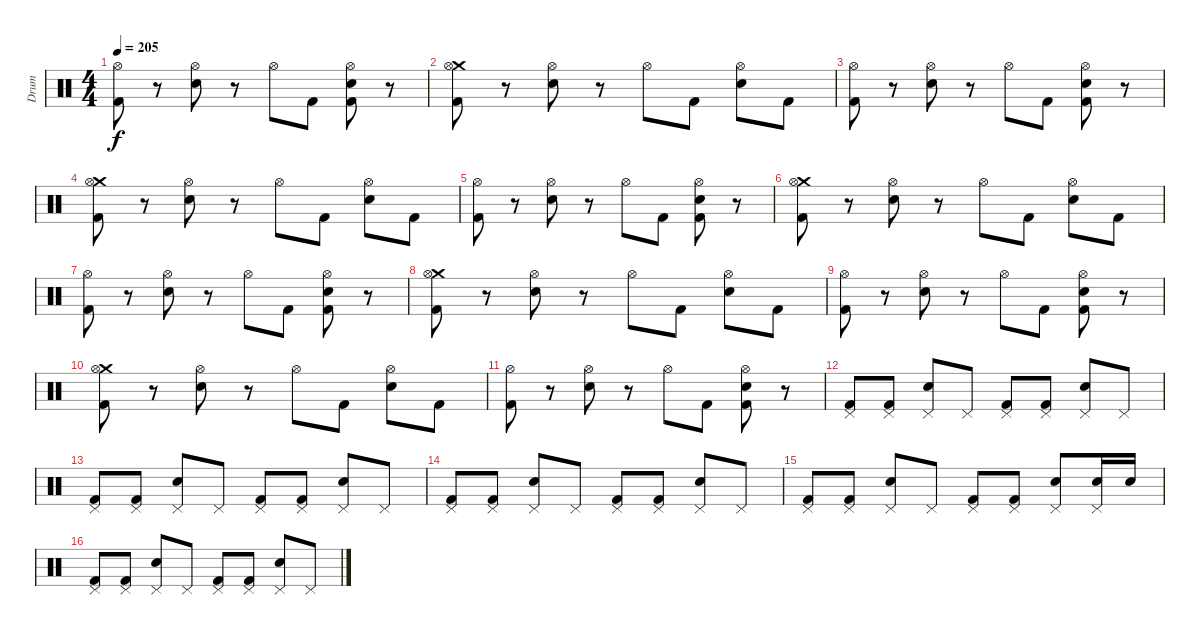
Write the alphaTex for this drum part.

\track ("Drum" "Drum") {instrument percussion}
\staff {score}
\articulation defaults
\ts (4 4)
\tempo 205
\clef neutral
\ks c
("Hi-Hat (open)" "Kick (hit) 2").8{dy f} r.8 ("Hi-Hat (open)" "Snare (hit) 2").8 r.8 "Hi-Hat (open)".8 "Kick (hit) 2".8 ("Hi-Hat (open)" "Snare (hit) 2" "Kick (hit) 2").8 r.8 |
("Crash medium (hit)" "Hi-Hat (open)" "Kick (hit) 2").8 r.8 ("Hi-Hat (open)" "Snare (hit) 2").8 r.8 "Hi-Hat (open)".8 "Kick (hit) 2".8 ("Hi-Hat (open)" "Snare (hit) 2").8 "Kick (hit) 2".8 |
("Hi-Hat (open)" "Kick (hit) 2").8 r.8 ("Hi-Hat (open)" "Snare (hit) 2").8 r.8 "Hi-Hat (open)".8 "Kick (hit) 2".8 ("Hi-Hat (open)" "Snare (hit) 2" "Kick (hit) 2").8 r.8 |
("Crash medium (hit)" "Hi-Hat (open)" "Kick (hit) 2").8 r.8 ("Hi-Hat (open)" "Snare (hit) 2").8 r.8 "Hi-Hat (open)".8 "Kick (hit) 2".8 ("Hi-Hat (open)" "Snare (hit) 2").8 "Kick (hit) 2".8 |
("Hi-Hat (open)" "Kick (hit) 2").8 r.8 ("Hi-Hat (open)" "Snare (hit) 2").8 r.8 "Hi-Hat (open)".8 "Kick (hit) 2".8 ("Hi-Hat (open)" "Snare (hit) 2" "Kick (hit) 2").8 r.8 |
("Crash medium (hit)" "Hi-Hat (open)" "Kick (hit) 2").8 r.8 ("Hi-Hat (open)" "Snare (hit) 2").8 r.8 "Hi-Hat (open)".8 "Kick (hit) 2".8 ("Hi-Hat (open)" "Snare (hit) 2").8 "Kick (hit) 2".8 |
("Hi-Hat (open)" "Kick (hit) 2").8 r.8 ("Hi-Hat (open)" "Snare (hit) 2").8 r.8 "Hi-Hat (open)".8 "Kick (hit) 2".8 ("Hi-Hat (open)" "Snare (hit) 2" "Kick (hit) 2").8 r.8 |
("Crash medium (hit)" "Hi-Hat (open)" "Kick (hit) 2").8 r.8 ("Hi-Hat (open)" "Snare (hit) 2").8 r.8 "Hi-Hat (open)".8 "Kick (hit) 2".8 ("Hi-Hat (open)" "Snare (hit) 2").8 "Kick (hit) 2".8 |
("Hi-Hat (open)" "Kick (hit) 2").8 r.8 ("Hi-Hat (open)" "Snare (hit) 2").8 r.8 "Hi-Hat (open)".8 "Kick (hit) 2".8 ("Hi-Hat (open)" "Snare (hit) 2" "Kick (hit) 2").8 r.8 |
("Crash medium (hit)" "Hi-Hat (open)" "Kick (hit) 2").8 r.8 ("Hi-Hat (open)" "Snare (hit) 2").8 r.8 "Hi-Hat (open)".8 "Kick (hit) 2".8 ("Hi-Hat (open)" "Snare (hit) 2").8 "Kick (hit) 2".8 |
("Hi-Hat (open)" "Kick (hit) 2").8 r.8 ("Hi-Hat (open)" "Snare (hit) 2").8 r.8 "Hi-Hat (open)".8 "Kick (hit) 2".8 ("Hi-Hat (open)" "Snare (hit) 2" "Kick (hit) 2").8 r.8 |
("Pedal Hi-Hat (hit)" "Kick (hit) 2").8 ("Pedal Hi-Hat (hit)" "Kick (hit) 2").8 ("Pedal Hi-Hat (hit)" "Snare (hit) 2").8 "Pedal Hi-Hat (hit)".8 ("Pedal Hi-Hat (hit)" "Kick (hit) 2").8 ("Pedal Hi-Hat (hit)" "Kick (hit) 2").8 ("Pedal Hi-Hat (hit)" "Snare (hit) 2").8 "Pedal Hi-Hat (hit)".8 |
("Pedal Hi-Hat (hit)" "Kick (hit) 2").8 ("Pedal Hi-Hat (hit)" "Kick (hit) 2").8 ("Pedal Hi-Hat (hit)" "Snare (hit) 2").8 "Pedal Hi-Hat (hit)".8 ("Pedal Hi-Hat (hit)" "Kick (hit) 2").8 ("Pedal Hi-Hat (hit)" "Kick (hit) 2").8 ("Pedal Hi-Hat (hit)" "Snare (hit) 2").8 "Pedal Hi-Hat (hit)".8 |
("Pedal Hi-Hat (hit)" "Kick (hit) 2").8 ("Pedal Hi-Hat (hit)" "Kick (hit) 2").8 ("Pedal Hi-Hat (hit)" "Snare (hit) 2").8 "Pedal Hi-Hat (hit)".8 ("Pedal Hi-Hat (hit)" "Kick (hit) 2").8 ("Pedal Hi-Hat (hit)" "Kick (hit) 2").8 ("Pedal Hi-Hat (hit)" "Snare (hit) 2").8 "Pedal Hi-Hat (hit)".8 |
("Pedal Hi-Hat (hit)" "Kick (hit) 2").8 ("Pedal Hi-Hat (hit)" "Kick (hit) 2").8 ("Pedal Hi-Hat (hit)" "Snare (hit) 2").8 "Pedal Hi-Hat (hit)".8 ("Pedal Hi-Hat (hit)" "Kick (hit) 2").8 ("Pedal Hi-Hat (hit)" "Kick (hit) 2").8 ("Pedal Hi-Hat (hit)" "Snare (hit) 2").8 ("Pedal Hi-Hat (hit)" "Snare (hit) 2").16 "Snare (hit) 2".16 |
("Pedal Hi-Hat (hit)" "Kick (hit) 2").8 ("Pedal Hi-Hat (hit)" "Kick (hit) 2").8 ("Pedal Hi-Hat (hit)" "Snare (hit) 2").8 "Pedal Hi-Hat (hit)".8 ("Pedal Hi-Hat (hit)" "Kick (hit) 2").8 ("Pedal Hi-Hat (hit)" "Kick (hit) 2").8 ("Pedal Hi-Hat (hit)" "Snare (hit) 2").8 "Pedal Hi-Hat (hit)".8
